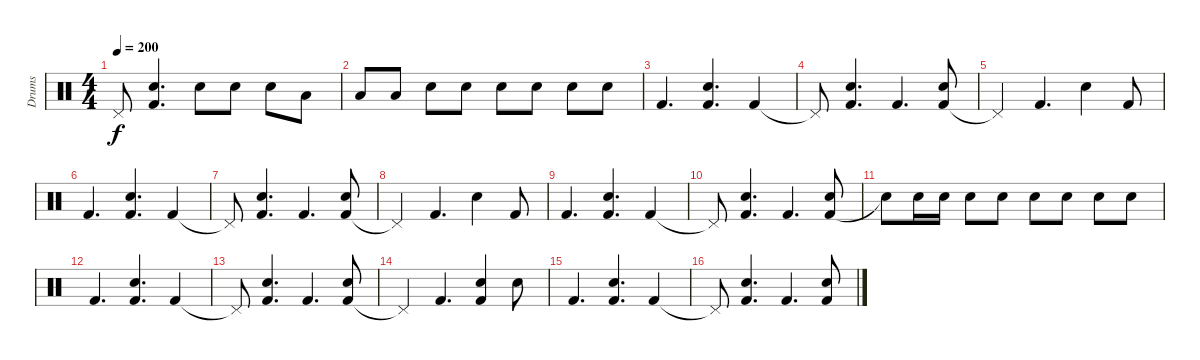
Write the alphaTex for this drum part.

\track ("Drums" "Drums") {instrument percussion}
\staff {score}
\articulation defaults
\ts (4 4)
\tempo 200
\clef neutral
\ks c "Pedal Hi-Hat (hit)"{t}.8{dy f}
("Kick (hit) 2" "Snare (hit) 2").4{d} "Snare (hit) 2".8 "Snare (hit) 2".8 "Snare (hit) 2".8 "Low Tom (hit)".8 |
"Low Tom (hit)".8 "Low Tom (hit)".8 "Snare (hit) 2".8 "Snare (hit) 2".8 "Snare (hit) 2".8 "Snare (hit) 2".8 "Snare (hit) 2".8 "Snare (hit) 2".8 |
"Kick (hit) 2".4{d} ("Kick (hit) 2" "Snare (hit) 2").4{d} "Kick (hit) 2".4 |
"Pedal Hi-Hat (hit)"{t}.8 ("Kick (hit) 2" "Snare (hit) 2").4{d} "Kick (hit) 2".4{d} ("Kick (hit) 2" "Snare (hit) 2").8 |
"Pedal Hi-Hat (hit)"{t}.4 "Kick (hit) 2".4{d} "Snare (hit) 2".4 "Kick (hit) 2".8 |
"Kick (hit) 2".4{d} ("Kick (hit) 2" "Snare (hit) 2").4{d} "Kick (hit) 2".4 |
"Pedal Hi-Hat (hit)"{t}.8 ("Kick (hit) 2" "Snare (hit) 2").4{d} "Kick (hit) 2".4{d} ("Kick (hit) 2" "Snare (hit) 2").8 |
"Pedal Hi-Hat (hit)"{t}.4 "Kick (hit) 2".4{d} "Snare (hit) 2".4 "Kick (hit) 2".8 |
"Kick (hit) 2".4{d} ("Kick (hit) 2" "Snare (hit) 2").4{d} "Kick (hit) 2".4 |
"Pedal Hi-Hat (hit)"{t}.8 ("Kick (hit) 2" "Snare (hit) 2").4{d} "Kick (hit) 2".4{d} ("Kick (hit) 2" "Snare (hit) 2").8 |
"Snare (hit)"{t}.8 "Snare (hit) 2".16 "Snare (hit) 2".16 "Snare (hit) 2".8 "Snare (hit) 2".8 "Snare (hit) 2".8 "Snare (hit) 2".8 "Snare (hit) 2".8 "Snare (hit) 2".8 |
"Kick (hit) 2".4{d} ("Kick (hit) 2" "Snare (hit) 2").4{d} "Kick (hit) 2".4 |
"Pedal Hi-Hat (hit)"{t}.8 ("Kick (hit) 2" "Snare (hit) 2").4{d} "Kick (hit) 2".4{d} ("Kick (hit) 2" "Snare (hit) 2").8 |
"Pedal Hi-Hat (hit)"{t}.4 "Kick (hit) 2".4{d} ("Kick (hit) 2" "Snare (hit) 2").4 "Snare (hit) 2".8 |
"Kick (hit) 2".4{d} ("Kick (hit) 2" "Snare (hit) 2").4{d} "Kick (hit) 2".4 |
"Pedal Hi-Hat (hit)"{t}.8 ("Kick (hit) 2" "Snare (hit) 2").4{d} "Kick (hit) 2".4{d} ("Kick (hit) 2" "Snare (hit) 2").8
